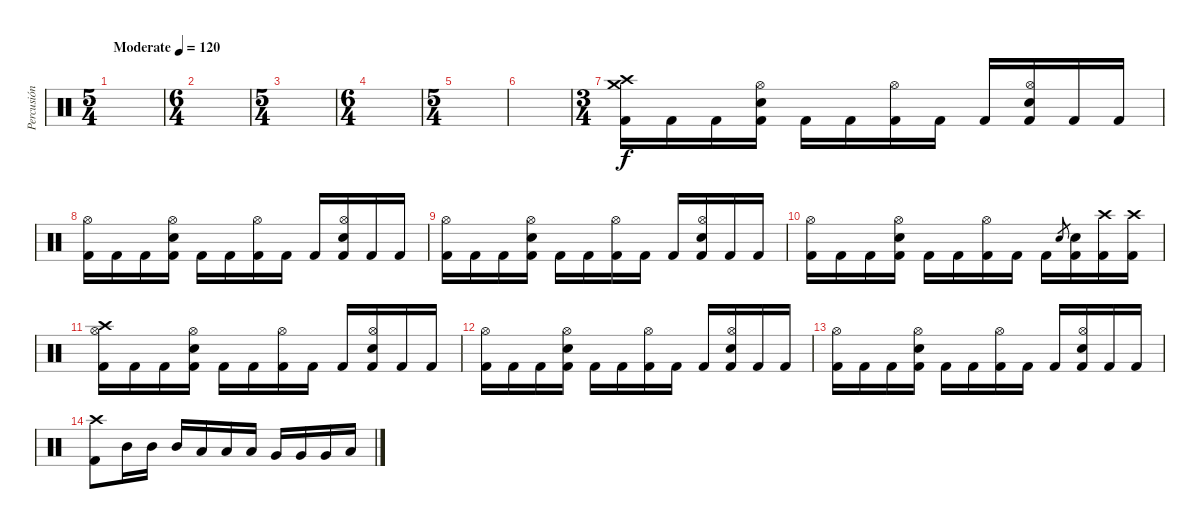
\track ("Percusión" "Percusión") {instrument percussion}
\staff {score}
\articulation defaults
\ts (5 4)
\tempo (120 "Moderate")
\clef neutral
\ks c
|
\ts (6 4)
|
\ts (5 4)
|
\ts (6 4)
|
\ts (5 4)
|
|
\ts (3 4)
("Crash high (hit)" "Crash medium (hit)" "Kick (hit) 2").16 "Kick (hit) 2".16 "Kick (hit) 2".16 ("Hi-Hat (open)" "Snare (hit) 2" "Kick (hit) 2").16 "Kick (hit) 2".16 "Kick (hit) 2".16 ("Hi-Hat (open)" "Kick (hit) 2").16 "Kick (hit) 2".16 "Kick (hit) 2".16 ("Hi-Hat (open)" "Snare (hit) 2" "Kick (hit) 2").16 "Kick (hit) 2".16 "Kick (hit) 2".16 |
("Hi-Hat (open)" "Kick (hit) 2").16 "Kick (hit) 2".16 "Kick (hit) 2".16 ("Hi-Hat (open)" "Snare (hit) 2" "Kick (hit) 2").16 "Kick (hit) 2".16 "Kick (hit) 2".16 ("Hi-Hat (open)" "Kick (hit) 2").16 "Kick (hit) 2".16 "Kick (hit) 2".16 ("Hi-Hat (open)" "Snare (hit) 2" "Kick (hit) 2").16 "Kick (hit) 2".16 "Kick (hit) 2".16 |
("Hi-Hat (open)" "Kick (hit) 2").16 "Kick (hit) 2".16 "Kick (hit) 2".16 ("Hi-Hat (open)" "Snare (hit) 2" "Kick (hit) 2").16 "Kick (hit) 2".16 "Kick (hit) 2".16 ("Hi-Hat (open)" "Kick (hit) 2").16 "Kick (hit) 2".16 "Kick (hit) 2".16 ("Hi-Hat (open)" "Snare (hit) 2" "Kick (hit) 2").16 "Kick (hit) 2".16 "Kick (hit) 2".16 |
("Hi-Hat (open)" "Kick (hit) 2").16 "Kick (hit) 2".16 "Kick (hit) 2".16 ("Hi-Hat (open)" "Snare (hit) 2" "Kick (hit) 2").16 "Kick (hit) 2".16 "Kick (hit) 2".16 ("Hi-Hat (open)" "Kick (hit) 2").16 "Kick (hit) 2".16 "Kick (hit) 2".16 "Snare (hit) 2".8{gr} ("Snare (hit) 2" "Kick (hit) 2").16 ("Crash high (hit)" "Kick (hit) 2").16 ("Crash high (hit)" "Kick (hit) 2").16 |
("Crash high (hit)" "Hi-Hat (open)" "Kick (hit) 2").16 "Kick (hit) 2".16 "Kick (hit) 2".16 ("Hi-Hat (open)" "Snare (hit) 2" "Kick (hit) 2").16 "Kick (hit) 2".16 "Kick (hit) 2".16 ("Hi-Hat (open)" "Kick (hit) 2").16 "Kick (hit) 2".16 "Kick (hit) 2".16 ("Hi-Hat (open)" "Snare (hit) 2" "Kick (hit) 2").16 "Kick (hit) 2".16 "Kick (hit) 2".16 |
("Hi-Hat (open)" "Kick (hit) 2").16 "Kick (hit) 2".16 "Kick (hit) 2".16 ("Hi-Hat (open)" "Snare (hit) 2" "Kick (hit) 2").16 "Kick (hit) 2".16 "Kick (hit) 2".16 ("Hi-Hat (open)" "Kick (hit) 2").16 "Kick (hit) 2".16 "Kick (hit) 2".16 ("Hi-Hat (open)" "Snare (hit) 2" "Kick (hit) 2").16 "Kick (hit) 2".16 "Kick (hit) 2".16 |
("Hi-Hat (open)" "Kick (hit) 2").16 "Kick (hit) 2".16 "Kick (hit) 2".16 ("Hi-Hat (open)" "Snare (hit) 2" "Kick (hit) 2").16 "Kick (hit) 2".16 "Kick (hit) 2".16 ("Hi-Hat (open)" "Kick (hit) 2").16 "Kick (hit) 2".16 "Kick (hit) 2".16 ("Hi-Hat (open)" "Snare (hit) 2" "Kick (hit) 2").16 "Kick (hit) 2".16 "Kick (hit) 2".16 |
("Crash high (hit)" "Kick (hit) 2").8 "Mid Tom (hit)".16 "Mid Tom (hit)".16 "Mid Tom (hit)".16 "Low Tom (hit)".16 "Low Tom (hit)".16 "Low Tom (hit)".16 "Very Low Tom (hit)".16 "Very Low Tom (hit)".16 "Very Low Tom (hit)".16 "Low Floor Tom (hit)".16
